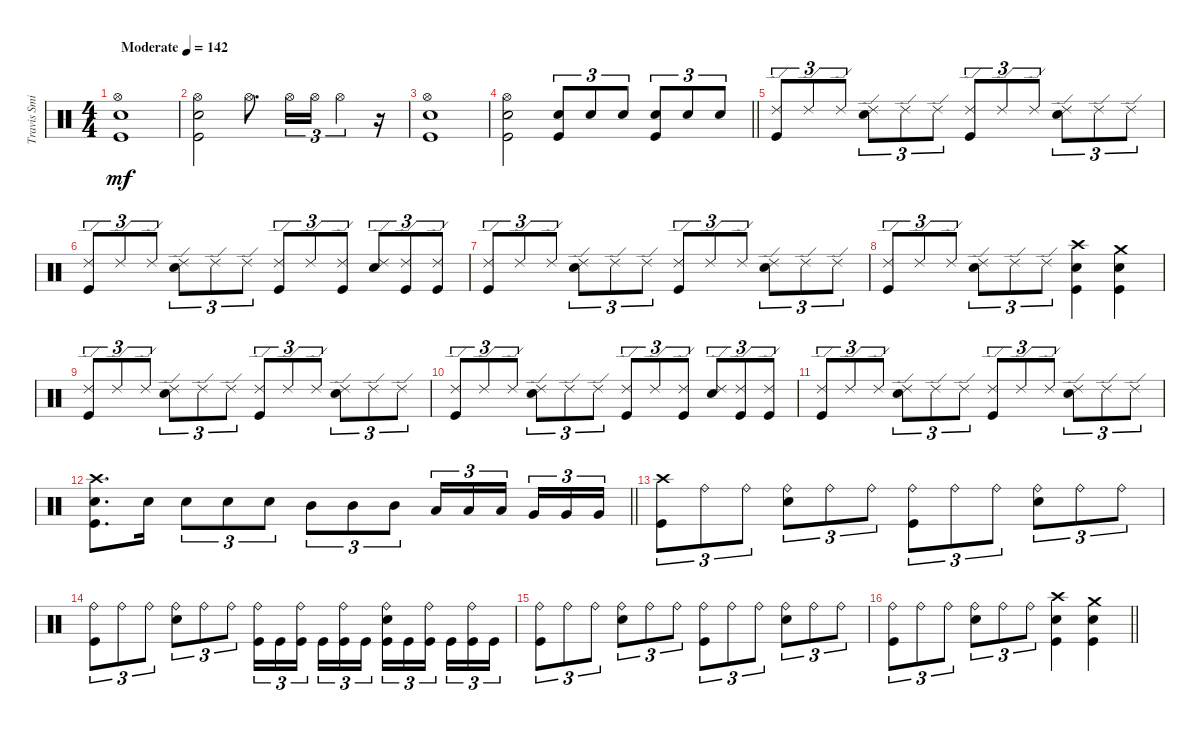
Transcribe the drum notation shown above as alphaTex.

\track ("Travis Smith" "Travis Smi") {instrument percussion}
\staff {score}
\articulation defaults
\ts (4 4)
\section ("" "")
\tempo (142 "Moderate")
\clef neutral
\ks c
("Hi-Hat (open)" "Snare (hit) 2" "Kick (hit)").1{dy mf} |
("Hi-Hat (open)" "Snare (hit) 2" "Kick (hit)").2 "Hi-Hat (open)".8{d} "Hi-Hat (open)".16{tu (3 2)} "Hi-Hat (open)".16{tu (3 2)} "Hi-Hat (open)".4{tu (3 2)} r.16 |
("Hi-Hat (open)" "Snare (hit) 2" "Kick (hit)").1 |
\barLineRight lightlight
("Hi-Hat (open)" "Snare (hit) 2" "Kick (hit)").2 ("Snare (hit) 2" "Kick (hit)").8{tu (3 2)} "Snare (hit) 2".8{tu (3 2)} "Snare (hit) 2".8{tu (3 2)} ("Snare (hit) 2" "Kick (hit)").8{tu (3 2)} "Snare (hit) 2".8{tu (3 2)} "Snare (hit) 2".8{tu (3 2)} |
\section ("" "")
("Ride (edge) 2" "Kick (hit)").8{tu (3 2)} "Ride (edge) 2".8{tu (3 2)} "Ride (edge) 2".8{tu (3 2)} ("Ride (edge) 2" "Snare (hit) 2").8{tu (3 2)} "Ride (edge) 2".8{tu (3 2)} "Ride (edge) 2".8{tu (3 2)} ("Ride (edge) 2" "Kick (hit)").8{tu (3 2)} "Ride (edge) 2".8{tu (3 2)} "Ride (edge) 2".8{tu (3 2)} ("Ride (edge) 2" "Snare (hit) 2").8{tu (3 2)} "Ride (edge) 2".8{tu (3 2)} "Ride (edge) 2".8{tu (3 2)} |
("Ride (edge) 2" "Kick (hit)").8{tu (3 2)} "Ride (edge) 2".8{tu (3 2)} "Ride (edge) 2".8{tu (3 2)} ("Ride (edge) 2" "Snare (hit) 2").8{tu (3 2)} "Ride (edge) 2".8{tu (3 2)} "Ride (edge) 2".8{tu (3 2)} ("Ride (edge) 2" "Kick (hit)").8{tu (3 2)} "Ride (edge) 2".8{tu (3 2)} ("Ride (edge) 2" "Kick (hit)").8{tu (3 2)} ("Ride (edge) 2" "Snare (hit) 2").8{tu (3 2)} ("Ride (edge) 2" "Kick (hit)").8{tu (3 2)} ("Ride (edge) 2" "Kick (hit)").8{tu (3 2)} |
("Ride (edge) 2" "Kick (hit)").8{tu (3 2)} "Ride (edge) 2".8{tu (3 2)} "Ride (edge) 2".8{tu (3 2)} ("Ride (edge) 2" "Snare (hit) 2").8{tu (3 2)} "Ride (edge) 2".8{tu (3 2)} "Ride (edge) 2".8{tu (3 2)} ("Ride (edge) 2" "Kick (hit)").8{tu (3 2)} "Ride (edge) 2".8{tu (3 2)} "Ride (edge) 2".8{tu (3 2)} ("Ride (edge) 2" "Snare (hit) 2").8{tu (3 2)} "Ride (edge) 2".8{tu (3 2)} "Ride (edge) 2".8{tu (3 2)} |
("Ride (edge) 2" "Kick (hit)").8{tu (3 2)} "Ride (edge) 2".8{tu (3 2)} "Ride (edge) 2".8{tu (3 2)} ("Ride (edge) 2" "Snare (hit) 2").8{tu (3 2)} "Ride (edge) 2".8{tu (3 2)} "Ride (edge) 2".8{tu (3 2)} ("Crash high (hit)" "Snare (hit) 2" "Kick (hit)").4 ("Crash medium (hit)" "Snare (hit) 2" "Kick (hit)").4 |
("Ride (edge) 2" "Kick (hit)").8{tu (3 2)} "Ride (edge) 2".8{tu (3 2)} "Ride (edge) 2".8{tu (3 2)} ("Ride (edge) 2" "Snare (hit) 2").8{tu (3 2)} "Ride (edge) 2".8{tu (3 2)} "Ride (edge) 2".8{tu (3 2)} ("Ride (edge) 2" "Kick (hit)").8{tu (3 2)} "Ride (edge) 2".8{tu (3 2)} "Ride (edge) 2".8{tu (3 2)} ("Ride (edge) 2" "Snare (hit) 2").8{tu (3 2)} "Ride (edge) 2".8{tu (3 2)} "Ride (edge) 2".8{tu (3 2)} |
("Ride (edge) 2" "Kick (hit)").8{tu (3 2)} "Ride (edge) 2".8{tu (3 2)} "Ride (edge) 2".8{tu (3 2)} ("Ride (edge) 2" "Snare (hit) 2").8{tu (3 2)} "Ride (edge) 2".8{tu (3 2)} "Ride (edge) 2".8{tu (3 2)} ("Ride (edge) 2" "Kick (hit)").8{tu (3 2)} "Ride (edge) 2".8{tu (3 2)} ("Ride (edge) 2" "Kick (hit)").8{tu (3 2)} ("Ride (edge) 2" "Snare (hit) 2").8{tu (3 2)} ("Ride (edge) 2" "Kick (hit)").8{tu (3 2)} ("Ride (edge) 2" "Kick (hit)").8{tu (3 2)} |
("Ride (edge) 2" "Kick (hit)").8{tu (3 2)} "Ride (edge) 2".8{tu (3 2)} "Ride (edge) 2".8{tu (3 2)} ("Ride (edge) 2" "Snare (hit) 2").8{tu (3 2)} "Ride (edge) 2".8{tu (3 2)} "Ride (edge) 2".8{tu (3 2)} ("Ride (edge) 2" "Kick (hit)").8{tu (3 2)} "Ride (edge) 2".8{tu (3 2)} "Ride (edge) 2".8{tu (3 2)} ("Ride (edge) 2" "Snare (hit) 2").8{tu (3 2)} "Ride (edge) 2".8{tu (3 2)} "Ride (edge) 2".8{tu (3 2)} |
\barLineRight lightlight
("Crash high (hit)" "Snare (hit) 2" "Kick (hit)").8{d} "Snare (hit) 2".16 "Snare (hit) 2".8{tu (3 2)} "Snare (hit) 2".8{tu (3 2)} "Snare (hit) 2".8{tu (3 2)} "Mid Tom (hit)".8{tu (3 2)} "Mid Tom (hit)".8{tu (3 2)} "Mid Tom (hit)".8{tu (3 2)} "Low Tom (hit)".16{tu (3 2)} "Low Tom (hit)".16{tu (3 2)} "Low Tom (hit)".16{tu (3 2)} "Very Low Tom (hit)".16{tu (3 2)} "Very Low Tom (hit)".16{tu (3 2)} "Very Low Tom (hit)".16{tu (3 2)} |
\section ("" "")
("Crash high (hit)" "Kick (hit)").8{tu (3 2)} "Ride (bell)".8{tu (3 2)} "Ride (bell)".8{tu (3 2)} ("Ride (bell)" "Snare (hit) 2").8{tu (3 2)} "Ride (bell)".8{tu (3 2)} "Ride (bell)".8{tu (3 2)} ("Ride (bell)" "Kick (hit)").8{tu (3 2)} "Ride (bell)".8{tu (3 2)} "Ride (bell)".8{tu (3 2)} ("Ride (bell)" "Snare (hit) 2").8{tu (3 2)} "Ride (bell)".8{tu (3 2)} "Ride (bell)".8{tu (3 2)} |
("Ride (bell)" "Kick (hit)").8{tu (3 2)} "Ride (bell)".8{tu (3 2)} "Ride (bell)".8{tu (3 2)} ("Ride (bell)" "Snare (hit) 2").8{tu (3 2)} "Ride (bell)".8{tu (3 2)} "Ride (bell)".8{tu (3 2)} ("Ride (bell)" "Kick (hit)").16{tu (3 2)} "Kick (hit)".16{tu (3 2)} ("Ride (bell)" "Kick (hit)").16{tu (3 2)} "Kick (hit)".16{tu (3 2)} ("Ride (bell)" "Kick (hit)").16{tu (3 2)} "Kick (hit)".16{tu (3 2)} ("Ride (bell)" "Snare (hit) 2" "Kick (hit)").16{tu (3 2)} "Kick (hit)".16{tu (3 2)} ("Ride (bell)" "Kick (hit)").16{tu (3 2)} "Kick (hit)".16{tu (3 2)} ("Ride (bell)" "Kick (hit)").16{tu (3 2)} "Kick (hit)".16{tu (3 2)} |
("Ride (bell)" "Kick (hit)").8{tu (3 2)} "Ride (bell)".8{tu (3 2)} "Ride (bell)".8{tu (3 2)} ("Ride (bell)" "Snare (hit) 2").8{tu (3 2)} "Ride (bell)".8{tu (3 2)} "Ride (bell)".8{tu (3 2)} ("Ride (bell)" "Kick (hit)").8{tu (3 2)} "Ride (bell)".8{tu (3 2)} "Ride (bell)".8{tu (3 2)} ("Ride (bell)" "Snare (hit) 2").8{tu (3 2)} "Ride (bell)".8{tu (3 2)} "Ride (bell)".8{tu (3 2)} |
\barLineRight lightlight
("Ride (bell)" "Kick (hit)").8{tu (3 2)} "Ride (bell)".8{tu (3 2)} "Ride (bell)".8{tu (3 2)} ("Ride (bell)" "Snare (hit) 2").8{tu (3 2)} "Ride (bell)".8{tu (3 2)} "Ride (bell)".8{tu (3 2)} ("Crash high (hit)" "Snare (hit) 2" "Kick (hit)").4 ("Crash medium (hit)" "Snare (hit) 2" "Kick (hit)").4
